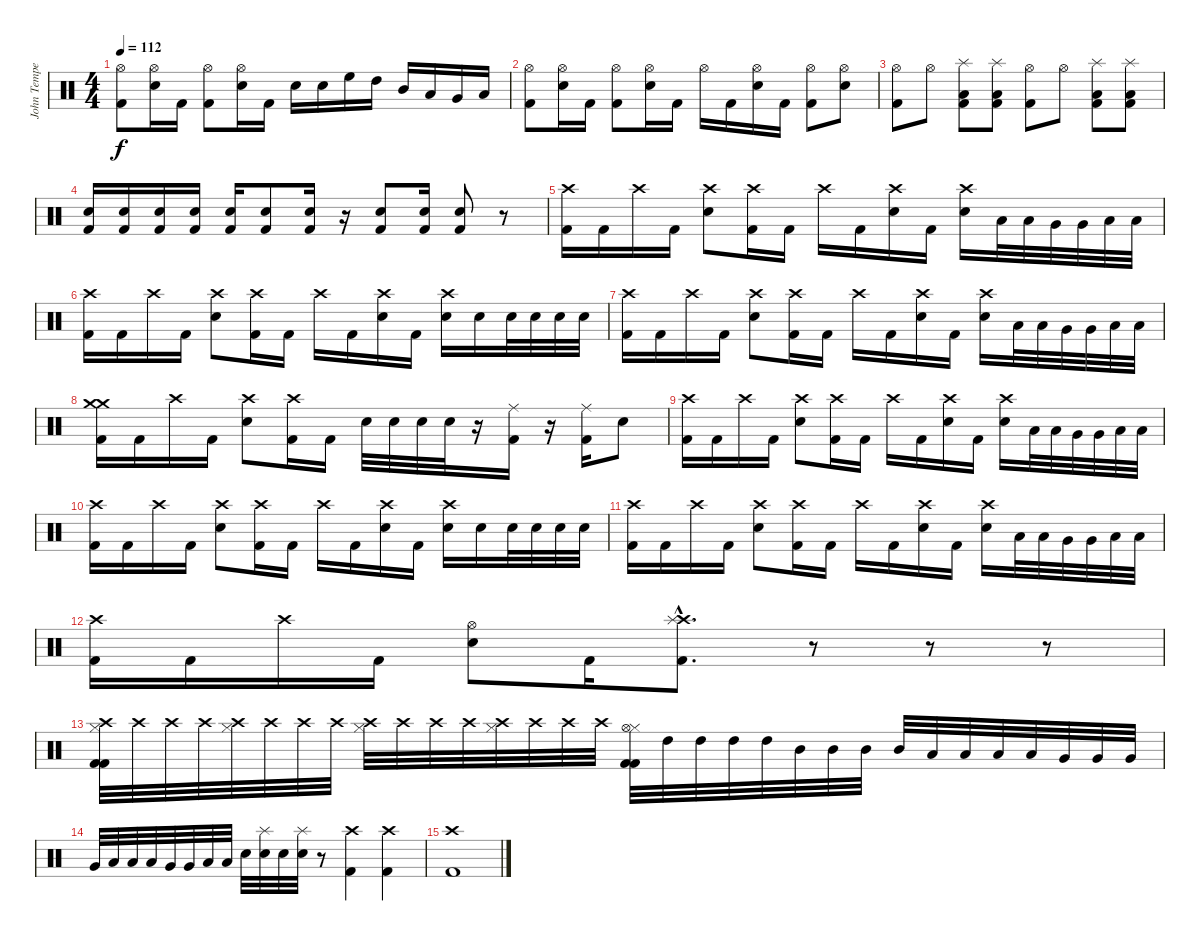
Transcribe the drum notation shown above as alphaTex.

\track ("John Tempesta" "John Tempe") {instrument percussion}
\staff {score}
\articulation defaults
\ts (4 4)
\tempo 112
\clef neutral
\ks c
("Hi-Hat (open)" "Kick (hit) 2").8{dy f} ("Hi-Hat (open)" "Electric Snare (hit)").16 "Kick (hit) 2".16 ("Hi-Hat (open)" "Kick (hit) 2").8 ("Hi-Hat (open)" "Electric Snare (hit)").16 "Kick (hit) 2".16 "Electric Snare (hit)".16 "Electric Snare (hit)".16 "High Floor Tom (hit)".16 "High Tom (hit)".16 "Mid Tom (hit)".16 "Low Tom (hit)".16 "Very Low Tom (hit)".16 "Low Floor Tom (hit)".16 |
("Hi-Hat (open)" "Kick (hit) 2").8 ("Hi-Hat (open)" "Electric Snare (hit)").16 "Kick (hit) 2".16 ("Hi-Hat (open)" "Kick (hit) 2").8 ("Hi-Hat (open)" "Electric Snare (hit)").16 "Kick (hit) 2".16 "Hi-Hat (open)".16 "Kick (hit) 2".16 ("Hi-Hat (open)" "Electric Snare (hit)").16 "Kick (hit) 2".16 ("Hi-Hat (open)" "Kick (hit) 2").8 ("Hi-Hat (open)" "Electric Snare (hit)").8 |
("Hi-Hat (open)" "Kick (hit) 2").8 "Hi-Hat (open)".8 ("Splash (hit)" "Low Floor Tom (hit)" "Kick (hit) 2").8 ("Splash (hit)" "Low Floor Tom (hit)" "Kick (hit) 2").8 ("Hi-Hat (open)" "Kick (hit) 2").8 "Hi-Hat (open)".8 ("Splash (hit)" "Low Floor Tom (hit)" "Kick (hit) 2").8 ("Splash (hit)" "Low Floor Tom (hit)" "Kick (hit) 2").8 |
("Electric Snare (hit)" "Kick (hit) 2").16 ("Electric Snare (hit)" "Kick (hit) 2").16 ("Electric Snare (hit)" "Kick (hit) 2").16 ("Electric Snare (hit)" "Kick (hit) 2").16 ("Electric Snare (hit)" "Kick (hit) 2").16 ("Electric Snare (hit)" "Kick (hit) 2").8 ("Electric Snare (hit)" "Kick (hit) 2").16 r.16 ("Electric Snare (hit)" "Kick (hit) 2").8 ("Electric Snare (hit)" "Kick (hit) 2").16 ("Electric Snare (hit)" "Kick (hit) 2").8 r.8 |
("Crash high (hit)" "Kick (hit) 2").16 "Kick (hit) 2".16 "Crash high (hit)".16 "Kick (hit) 2".16 ("Crash high (hit)" "Electric Snare (hit)").8 ("Crash high (hit)" "Kick (hit) 2").16 "Kick (hit) 2".16 "Crash high (hit)".16 "Kick (hit) 2".16 ("Crash high (hit)" "Electric Snare (hit)").16 "Kick (hit) 2".16 ("Crash high (hit)" "Electric Snare (hit)").16 "Low Tom (hit)".32 "Low Tom (hit)".32 "Very Low Tom (hit)".32 "Very Low Tom (hit)".32 "Low Floor Tom (hit)".32 "Low Floor Tom (hit)".32 |
("Crash high (hit)" "Kick (hit) 2").16 "Kick (hit) 2".16 "Crash high (hit)".16 "Kick (hit) 2".16 ("Crash high (hit)" "Electric Snare (hit)").8 ("Crash high (hit)" "Kick (hit) 2").16 "Kick (hit) 2".16 "Crash high (hit)".16 "Kick (hit) 2".16 ("Crash high (hit)" "Electric Snare (hit)").16 "Kick (hit) 2".16 ("Crash high (hit)" "Electric Snare (hit)").16 "Electric Snare (hit)".16 "Electric Snare (hit)".32 "Electric Snare (hit)".32 "Electric Snare (hit)".32 "Electric Snare (hit)".32 |
("Crash high (hit)" "Kick (hit) 2").16 "Kick (hit) 2".16 "Crash high (hit)".16 "Kick (hit) 2".16 ("Crash high (hit)" "Electric Snare (hit)").8 ("Crash high (hit)" "Kick (hit) 2").16 "Kick (hit) 2".16 "Crash high (hit)".16 "Kick (hit) 2".16 ("Crash high (hit)" "Electric Snare (hit)").16 "Kick (hit) 2".16 ("Crash high (hit)" "Electric Snare (hit)").16 "Low Tom (hit)".32 "Low Tom (hit)".32 "Very Low Tom (hit)".32 "Very Low Tom (hit)".32 "Low Floor Tom (hit)".32 "Low Floor Tom (hit)".32 |
("Crash medium (hit)" "Crash medium (hit)" "Kick (hit) 2").16 "Kick (hit) 2".16 "Crash high (hit)".16 "Kick (hit) 2".16 ("Crash high (hit)" "Electric Snare (hit)").8 ("Crash high (hit)" "Kick (hit) 2").16 "Kick (hit) 2".16 "Electric Snare (hit)".32 "Electric Snare (hit)".32 "Electric Snare (hit)".32 "Electric Snare (hit)".32 r.16 ("Ride (middle)" "Kick (hit) 2").16 r.16 ("Ride (middle)" "Kick (hit) 2").16 "Electric Snare (hit)".8 |
("Crash high (hit)" "Kick (hit) 2").16 "Kick (hit) 2".16 "Crash high (hit)".16 "Kick (hit) 2".16 ("Crash high (hit)" "Electric Snare (hit)").8 ("Crash high (hit)" "Kick (hit) 2").16 "Kick (hit) 2".16 "Crash high (hit)".16 "Kick (hit) 2".16 ("Crash high (hit)" "Electric Snare (hit)").16 "Kick (hit) 2".16 ("Crash high (hit)" "Electric Snare (hit)").16 "Low Tom (hit)".32 "Low Tom (hit)".32 "Very Low Tom (hit)".32 "Very Low Tom (hit)".32 "Low Floor Tom (hit)".32 "Low Floor Tom (hit)".32 |
("Crash high (hit)" "Kick (hit) 2").16 "Kick (hit) 2".16 "Crash high (hit)".16 "Kick (hit) 2".16 ("Crash high (hit)" "Electric Snare (hit)").8 ("Crash high (hit)" "Kick (hit) 2").16 "Kick (hit) 2".16 "Crash high (hit)".16 "Kick (hit) 2".16 ("Crash high (hit)" "Electric Snare (hit)").16 "Kick (hit) 2".16 ("Crash high (hit)" "Electric Snare (hit)").16 "Electric Snare (hit)".16 "Electric Snare (hit)".32 "Electric Snare (hit)".32 "Electric Snare (hit)".32 "Electric Snare (hit)".32 |
("Crash high (hit)" "Kick (hit) 2").16 "Kick (hit) 2".16 "Crash high (hit)".16 "Kick (hit) 2".16 ("Crash high (hit)" "Electric Snare (hit)").8 ("Crash high (hit)" "Kick (hit) 2").16 "Kick (hit) 2".16 "Crash high (hit)".16 "Kick (hit) 2".16 ("Crash high (hit)" "Electric Snare (hit)").16 "Kick (hit) 2".16 ("Crash high (hit)" "Electric Snare (hit)").16 "Low Tom (hit)".32 "Low Tom (hit)".32 "Very Low Tom (hit)".32 "Very Low Tom (hit)".32 "Low Floor Tom (hit)".32 "Low Floor Tom (hit)".32 |
("Crash high (hit)" "Kick (hit) 2").16 "Kick (hit) 2".16 "Crash high (hit)".16 "Kick (hit) 2".16 ("Hi-Hat (open)" "Electric Snare (hit)").8 "Kick (hit) 2".16 ("Crash high (hit)"{hac} "Splash (hit)"{hac} "Kick (hit) 2"{hac}).8{d} r.8 r.8 r.8 |
("Crash high (hit)" "Hi-Hat (closed)" "Kick (hit) 2" "Kick (hit) 2").32 "Crash high (hit)".32 "Crash high (hit)".32 "Crash high (hit)".32 ("Crash high (hit)" "Hi-Hat (closed)").32 "Crash high (hit)".32 "Crash high (hit)".32 "Crash high (hit)".32 ("Crash high (hit)" "Hi-Hat (closed)").32 "Crash high (hit)".32 "Crash high (hit)".32 "Crash high (hit)".32 ("Crash high (hit)" "Hi-Hat (closed)").32 "Crash high (hit)".32 "Crash high (hit)".32 "Crash high (hit)".32 ("Hi-Hat (closed)" "Hi-Hat (open)" "Kick (hit) 2" "Kick (hit) 2").32 "High Tom (hit)".32 "High Tom (hit)".32 "High Tom (hit)".32 "High Tom (hit)".32 "Mid Tom (hit)".32 "Mid Tom (hit)".32 "Mid Tom (hit)".32 "Mid Tom (hit)".32 "Low Tom (hit)".32 "Low Tom (hit)".32 "Low Tom (hit)".32 "Low Tom (hit)".32 "Very Low Tom (hit)".32 "Very Low Tom (hit)".32 "Very Low Tom (hit)".32 |
"Very Low Tom (hit)".32 "Low Floor Tom (hit)".32 "Low Floor Tom (hit)".32 "Low Floor Tom (hit)".32 "Very Low Tom (hit)".32 "Very Low Tom (hit)".32 "Low Floor Tom (hit)".32 "Low Floor Tom (hit)".32 "Electric Snare (hit)".32 ("Splash (hit)" "Electric Snare (hit)").32 "Electric Snare (hit)".32 ("Splash (hit)" "Electric Snare (hit)").32 r.8 ("Crash high (hit)" "Kick (hit) 2").4 ("Crash high (hit)" "Kick (hit) 2").4 |
("Crash high (hit)" "Kick (hit) 2").1
